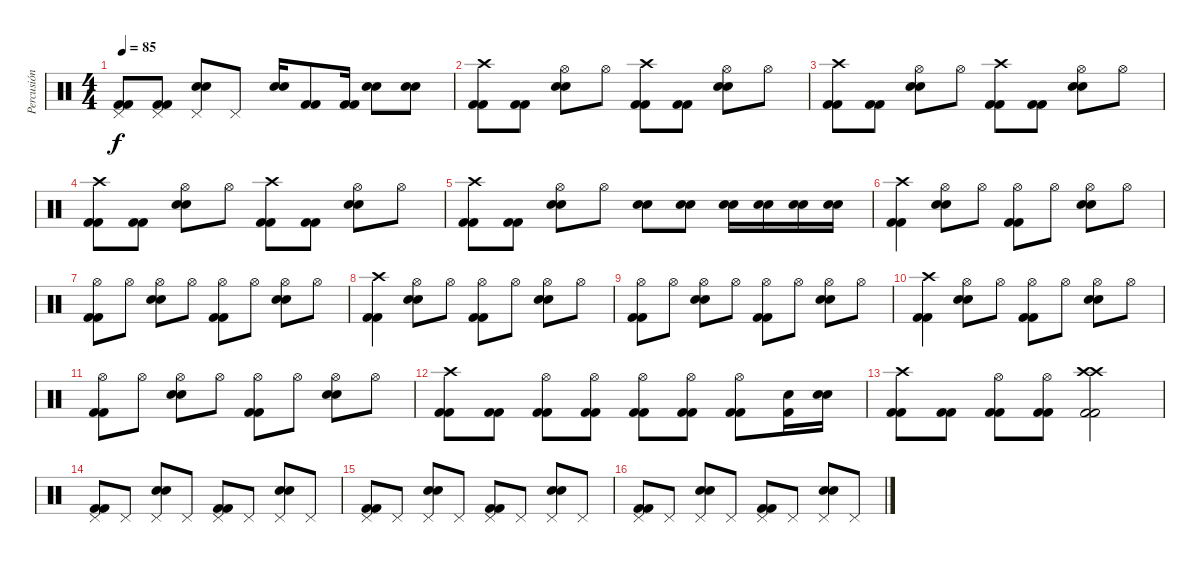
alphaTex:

\track ("Percusión" "Percusión") {instrument percussion}
\staff {score}
\articulation defaults
\ts (4 4)
\tempo 85
\clef neutral
\ks c
("Kick (hit) 2" "Kick (hit) 2" "Pedal Hi-Hat (hit)").8{dy f} ("Kick (hit) 2" "Kick (hit) 2" "Pedal Hi-Hat (hit)").8 ("Electric Snare (hit)" "Electric Snare (hit)" "Pedal Hi-Hat (hit)").8 "Pedal Hi-Hat (hit)".8 ("Electric Snare (hit)" "Electric Snare (hit)").16 ("Kick (hit) 2" "Kick (hit) 2").8 ("Kick (hit) 2" "Kick (hit) 2").16 ("Electric Snare (hit)" "Electric Snare (hit)").8 ("Electric Snare (hit)" "Electric Snare (hit)").8 |
("Crash high (hit)" "Kick (hit) 2" "Kick (hit) 2").8 ("Kick (hit) 2" "Kick (hit) 2").8 ("Hi-Hat (open)" "Electric Snare (hit)" "Electric Snare (hit)").8 "Hi-Hat (open)".8 ("Crash high (hit)" "Kick (hit) 2" "Kick (hit) 2").8 ("Kick (hit) 2" "Kick (hit) 2").8 ("Hi-Hat (open)" "Electric Snare (hit)" "Electric Snare (hit)").8 "Hi-Hat (open)".8 |
("Crash high (hit)" "Kick (hit) 2" "Kick (hit) 2").8 ("Kick (hit) 2" "Kick (hit) 2").8 ("Hi-Hat (open)" "Electric Snare (hit)" "Electric Snare (hit)").8 "Hi-Hat (open)".8 ("Crash high (hit)" "Kick (hit) 2" "Kick (hit) 2").8 ("Kick (hit) 2" "Kick (hit) 2").8 ("Hi-Hat (open)" "Electric Snare (hit)" "Electric Snare (hit)").8 "Hi-Hat (open)".8 |
("Crash high (hit)" "Kick (hit) 2" "Kick (hit) 2").8 ("Kick (hit) 2" "Kick (hit) 2").8 ("Hi-Hat (open)" "Electric Snare (hit)" "Electric Snare (hit)").8 "Hi-Hat (open)".8 ("Crash high (hit)" "Kick (hit) 2" "Kick (hit) 2").8 ("Kick (hit) 2" "Kick (hit) 2").8 ("Hi-Hat (open)" "Electric Snare (hit)" "Electric Snare (hit)").8 "Hi-Hat (open)".8 |
("Crash high (hit)" "Kick (hit) 2" "Kick (hit) 2").8 ("Kick (hit) 2" "Kick (hit) 2").8 ("Hi-Hat (open)" "Electric Snare (hit)" "Electric Snare (hit)").8 "Hi-Hat (open)".8 ("Electric Snare (hit)" "Electric Snare (hit)").8 ("Electric Snare (hit)" "Electric Snare (hit)").8 ("Electric Snare (hit)" "Electric Snare (hit)").16 ("Electric Snare (hit)" "Electric Snare (hit)").16 ("Electric Snare (hit)" "Electric Snare (hit)").16 ("Electric Snare (hit)" "Electric Snare (hit)").16 |
("Crash high (hit)" "Kick (hit) 2" "Kick (hit) 2").4 ("Hi-Hat (open)" "Electric Snare (hit)" "Electric Snare (hit)").8 "Hi-Hat (open)".8 ("Hi-Hat (open)" "Kick (hit) 2" "Kick (hit) 2").8 "Hi-Hat (open)".8 ("Hi-Hat (open)" "Electric Snare (hit)" "Electric Snare (hit)").8 "Hi-Hat (open)".8 |
("Hi-Hat (open)" "Kick (hit) 2" "Kick (hit) 2").8 "Hi-Hat (open)".8 ("Hi-Hat (open)" "Electric Snare (hit)" "Electric Snare (hit)").8 "Hi-Hat (open)".8 ("Hi-Hat (open)" "Kick (hit) 2" "Kick (hit) 2").8 "Hi-Hat (open)".8 ("Hi-Hat (open)" "Electric Snare (hit)" "Electric Snare (hit)").8 "Hi-Hat (open)".8 |
("Crash high (hit)" "Kick (hit) 2" "Kick (hit) 2").4 ("Hi-Hat (open)" "Electric Snare (hit)" "Electric Snare (hit)").8 "Hi-Hat (open)".8 ("Hi-Hat (open)" "Kick (hit) 2" "Kick (hit) 2").8 "Hi-Hat (open)".8 ("Hi-Hat (open)" "Electric Snare (hit)" "Electric Snare (hit)").8 "Hi-Hat (open)".8 |
("Hi-Hat (open)" "Kick (hit) 2" "Kick (hit) 2").8 "Hi-Hat (open)".8 ("Hi-Hat (open)" "Electric Snare (hit)" "Electric Snare (hit)").8 "Hi-Hat (open)".8 ("Hi-Hat (open)" "Kick (hit) 2" "Kick (hit) 2").8 "Hi-Hat (open)".8 ("Hi-Hat (open)" "Electric Snare (hit)" "Electric Snare (hit)").8 "Hi-Hat (open)".8 |
("Crash high (hit)" "Kick (hit) 2" "Kick (hit) 2").4 ("Hi-Hat (open)" "Electric Snare (hit)" "Electric Snare (hit)").8 "Hi-Hat (open)".8 ("Hi-Hat (open)" "Kick (hit) 2" "Kick (hit) 2").8 "Hi-Hat (open)".8 ("Hi-Hat (open)" "Electric Snare (hit)" "Electric Snare (hit)").8 "Hi-Hat (open)".8 |
("Hi-Hat (open)" "Kick (hit) 2" "Kick (hit) 2").8 "Hi-Hat (open)".8 ("Hi-Hat (open)" "Electric Snare (hit)" "Electric Snare (hit)").8 "Hi-Hat (open)".8 ("Hi-Hat (open)" "Kick (hit) 2" "Kick (hit) 2").8 "Hi-Hat (open)".8 ("Hi-Hat (open)" "Electric Snare (hit)" "Electric Snare (hit)").8 "Hi-Hat (open)".8 |
("Crash high (hit)" "Kick (hit) 2" "Kick (hit) 2").8 ("Kick (hit) 2" "Kick (hit) 2").8 ("Hi-Hat (open)" "Kick (hit) 2" "Kick (hit) 2").8 ("Hi-Hat (open)" "Kick (hit) 2" "Kick (hit) 2").8 ("Hi-Hat (open)" "Kick (hit) 2" "Kick (hit) 2").8 ("Hi-Hat (open)" "Kick (hit) 2" "Kick (hit) 2").8 ("Hi-Hat (open)" "Kick (hit) 2" "Kick (hit) 2").8 ("Electric Snare (hit)" "Kick (hit) 2").16 ("Electric Snare (hit)" "Electric Snare (hit)").16 |
("Crash high (hit)" "Kick (hit) 2" "Kick (hit) 2").8 ("Kick (hit) 2" "Kick (hit) 2").8 ("Hi-Hat (open)" "Kick (hit) 2" "Kick (hit) 2").8 ("Hi-Hat (open)" "Kick (hit) 2" "Kick (hit) 2").8 ("Crash high (hit)" "Crash high (hit)" "Kick (hit) 2" "Kick (hit) 2").2 |
("Kick (hit) 2" "Kick (hit) 2" "Pedal Hi-Hat (hit)").8 "Pedal Hi-Hat (hit)".8 ("Electric Snare (hit)" "Electric Snare (hit)" "Pedal Hi-Hat (hit)").8 "Pedal Hi-Hat (hit)".8 ("Kick (hit) 2" "Kick (hit) 2" "Pedal Hi-Hat (hit)").8 "Pedal Hi-Hat (hit)".8 ("Electric Snare (hit)" "Electric Snare (hit)" "Pedal Hi-Hat (hit)").8 "Pedal Hi-Hat (hit)".8 |
("Kick (hit) 2" "Kick (hit) 2" "Pedal Hi-Hat (hit)").8 "Pedal Hi-Hat (hit)".8 ("Electric Snare (hit)" "Electric Snare (hit)" "Pedal Hi-Hat (hit)").8 "Pedal Hi-Hat (hit)".8 ("Kick (hit) 2" "Kick (hit) 2" "Pedal Hi-Hat (hit)").8 "Pedal Hi-Hat (hit)".8 ("Electric Snare (hit)" "Electric Snare (hit)" "Pedal Hi-Hat (hit)").8 "Pedal Hi-Hat (hit)".8 |
("Kick (hit) 2" "Kick (hit) 2" "Pedal Hi-Hat (hit)").8 "Pedal Hi-Hat (hit)".8 ("Electric Snare (hit)" "Electric Snare (hit)" "Pedal Hi-Hat (hit)").8 "Pedal Hi-Hat (hit)".8 ("Kick (hit) 2" "Kick (hit) 2" "Pedal Hi-Hat (hit)").8 "Pedal Hi-Hat (hit)".8 ("Electric Snare (hit)" "Electric Snare (hit)" "Pedal Hi-Hat (hit)").8 "Pedal Hi-Hat (hit)".8
